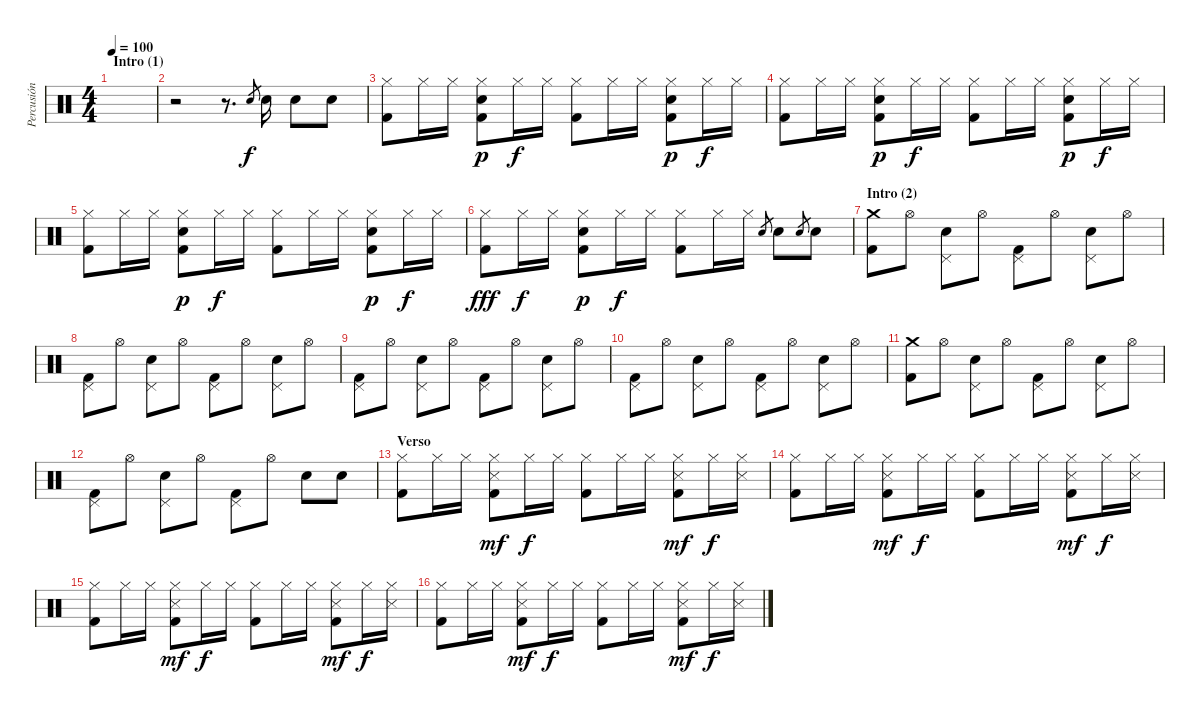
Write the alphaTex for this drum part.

\track ("Percusión" "Percusión") {instrument percussion}
\staff {score}
\articulation defaults
\ts (4 4)
\section ("" "Intro (1)")
\tempo 100
\clef neutral
\ks c
|
r.2 r.8{d} "Snare (hit) 2".8{gr} "Electric Snare (hit)".16 "Electric Snare (hit)".8 "Electric Snare (hit)".8 |
("Kick (hit) 2" "Hi-Hat (closed)").8 "Hi-Hat (closed)".16 "Hi-Hat (closed)".16 ("Hi-Hat (closed)" "Kick (hit) 2" "Electric Snare (hit)").8{dy p} "Hi-Hat (closed)".16{dy f} "Hi-Hat (closed)".16 ("Kick (hit) 2" "Hi-Hat (closed)").8 "Hi-Hat (closed)".16 "Hi-Hat (closed)".16 ("Hi-Hat (closed)" "Kick (hit) 2" "Electric Snare (hit)").8{dy p} "Hi-Hat (closed)".16{dy f} "Hi-Hat (closed)".16 |
("Kick (hit) 2" "Hi-Hat (closed)").8 "Hi-Hat (closed)".16 "Hi-Hat (closed)".16 ("Hi-Hat (closed)" "Kick (hit) 2" "Electric Snare (hit)").8{dy p} "Hi-Hat (closed)".16{dy f} "Hi-Hat (closed)".16 ("Kick (hit) 2" "Hi-Hat (closed)").8 "Hi-Hat (closed)".16 "Hi-Hat (closed)".16 ("Hi-Hat (closed)" "Kick (hit) 2" "Electric Snare (hit)").8{dy p} "Hi-Hat (closed)".16{dy f} "Hi-Hat (closed)".16 |
("Kick (hit) 2" "Hi-Hat (closed)").8 "Hi-Hat (closed)".16 "Hi-Hat (closed)".16 ("Hi-Hat (closed)" "Kick (hit) 2" "Electric Snare (hit)").8{dy p} "Hi-Hat (closed)".16{dy f} "Hi-Hat (closed)".16 ("Kick (hit) 2" "Hi-Hat (closed)").8 "Hi-Hat (closed)".16 "Hi-Hat (closed)".16 ("Hi-Hat (closed)" "Kick (hit) 2" "Electric Snare (hit)").8{dy p} "Hi-Hat (closed)".16{dy f} "Hi-Hat (closed)".16 |
("Kick (hit) 2" "Hi-Hat (closed)").8{dy fff} "Hi-Hat (closed)".16{dy f} "Hi-Hat (closed)".16 ("Hi-Hat (closed)" "Kick (hit) 2" "Electric Snare (hit)").8{dy p} "Hi-Hat (closed)".16{dy f} "Hi-Hat (closed)".16 ("Kick (hit) 2" "Hi-Hat (closed)").8 "Hi-Hat (closed)".16 "Hi-Hat (closed)".16 "Electric Snare (hit)".8{gr} "Electric Snare (hit)".8 "Electric Snare (hit)".8{gr} "Electric Snare (hit)".8 |
\section ("" "Intro (2)")
("Crash medium (hit)" "Kick (hit) 2").8 "Hi-Hat (open)".8 ("Electric Snare (hit)" "Pedal Hi-Hat (hit)").8 "Hi-Hat (open)".8 ("Pedal Hi-Hat (hit)" "Kick (hit) 2").8 "Hi-Hat (open)".8 ("Electric Snare (hit)" "Pedal Hi-Hat (hit)").8 "Hi-Hat (open)".8 |
("Pedal Hi-Hat (hit)" "Kick (hit) 2").8 "Hi-Hat (open)".8 ("Electric Snare (hit)" "Pedal Hi-Hat (hit)").8 "Hi-Hat (open)".8 ("Pedal Hi-Hat (hit)" "Kick (hit) 2").8 "Hi-Hat (open)".8 ("Electric Snare (hit)" "Pedal Hi-Hat (hit)").8 "Hi-Hat (open)".8 |
("Pedal Hi-Hat (hit)" "Kick (hit) 2").8 "Hi-Hat (open)".8 ("Electric Snare (hit)" "Pedal Hi-Hat (hit)").8 "Hi-Hat (open)".8 ("Pedal Hi-Hat (hit)" "Kick (hit) 2").8 "Hi-Hat (open)".8 ("Electric Snare (hit)" "Pedal Hi-Hat (hit)").8 "Hi-Hat (open)".8 |
("Pedal Hi-Hat (hit)" "Kick (hit) 2").8 "Hi-Hat (open)".8 ("Electric Snare (hit)" "Pedal Hi-Hat (hit)").8 "Hi-Hat (open)".8 ("Pedal Hi-Hat (hit)" "Kick (hit) 2").8 "Hi-Hat (open)".8 ("Electric Snare (hit)" "Pedal Hi-Hat (hit)").8 "Hi-Hat (open)".8 |
("Crash medium (hit)" "Kick (hit) 2").8 "Hi-Hat (open)".8 ("Electric Snare (hit)" "Pedal Hi-Hat (hit)").8 "Hi-Hat (open)".8 ("Pedal Hi-Hat (hit)" "Kick (hit) 2").8 "Hi-Hat (open)".8 ("Electric Snare (hit)" "Pedal Hi-Hat (hit)").8 "Hi-Hat (open)".8 |
("Pedal Hi-Hat (hit)" "Kick (hit) 2").8 "Hi-Hat (open)".8 ("Electric Snare (hit)" "Pedal Hi-Hat (hit)").8 "Hi-Hat (open)".8 ("Pedal Hi-Hat (hit)" "Kick (hit) 2").8 "Hi-Hat (open)".8 "Electric Snare (hit)".8 "Electric Snare (hit)".8 |
\section ("" "Verso ")
("Kick (hit) 2" "Hi-Hat (closed)").8 "Hi-Hat (closed)".16 "Hi-Hat (closed)".16 ("Hi-Hat (closed)" "Kick (hit) 2" "Metronome (hit)").8{dy mf} "Hi-Hat (closed)".16{dy f} "Hi-Hat (closed)".16 ("Kick (hit) 2" "Hi-Hat (closed)").8 "Hi-Hat (closed)".16 "Hi-Hat (closed)".16 ("Hi-Hat (closed)" "Kick (hit) 2" "Metronome (hit)").8{dy mf} "Hi-Hat (closed)".16{dy f} ("Hi-Hat (closed)" "Metronome (hit)").16 |
("Kick (hit) 2" "Hi-Hat (closed)").8 "Hi-Hat (closed)".16 "Hi-Hat (closed)".16 ("Hi-Hat (closed)" "Kick (hit) 2" "Metronome (hit)").8{dy mf} "Hi-Hat (closed)".16{dy f} "Hi-Hat (closed)".16 ("Kick (hit) 2" "Hi-Hat (closed)").8 "Hi-Hat (closed)".16 "Hi-Hat (closed)".16 ("Hi-Hat (closed)" "Kick (hit) 2" "Metronome (hit)").8{dy mf} "Hi-Hat (closed)".16{dy f} ("Hi-Hat (closed)" "Metronome (hit)").16 |
("Kick (hit) 2" "Hi-Hat (closed)").8 "Hi-Hat (closed)".16 "Hi-Hat (closed)".16 ("Hi-Hat (closed)" "Kick (hit) 2" "Metronome (hit)").8{dy mf} "Hi-Hat (closed)".16{dy f} "Hi-Hat (closed)".16 ("Kick (hit) 2" "Hi-Hat (closed)").8 "Hi-Hat (closed)".16 "Hi-Hat (closed)".16 ("Hi-Hat (closed)" "Kick (hit) 2" "Metronome (hit)").8{dy mf} "Hi-Hat (closed)".16{dy f} ("Hi-Hat (closed)" "Metronome (hit)").16 |
("Kick (hit) 2" "Hi-Hat (closed)").8 "Hi-Hat (closed)".16 "Hi-Hat (closed)".16 ("Hi-Hat (closed)" "Kick (hit) 2" "Metronome (hit)").8{dy mf} "Hi-Hat (closed)".16{dy f} "Hi-Hat (closed)".16 ("Kick (hit) 2" "Hi-Hat (closed)").8 "Hi-Hat (closed)".16 "Hi-Hat (closed)".16 ("Hi-Hat (closed)" "Kick (hit) 2" "Metronome (hit)").8{dy mf} "Hi-Hat (closed)".16{dy f} ("Hi-Hat (closed)" "Metronome (hit)").16
